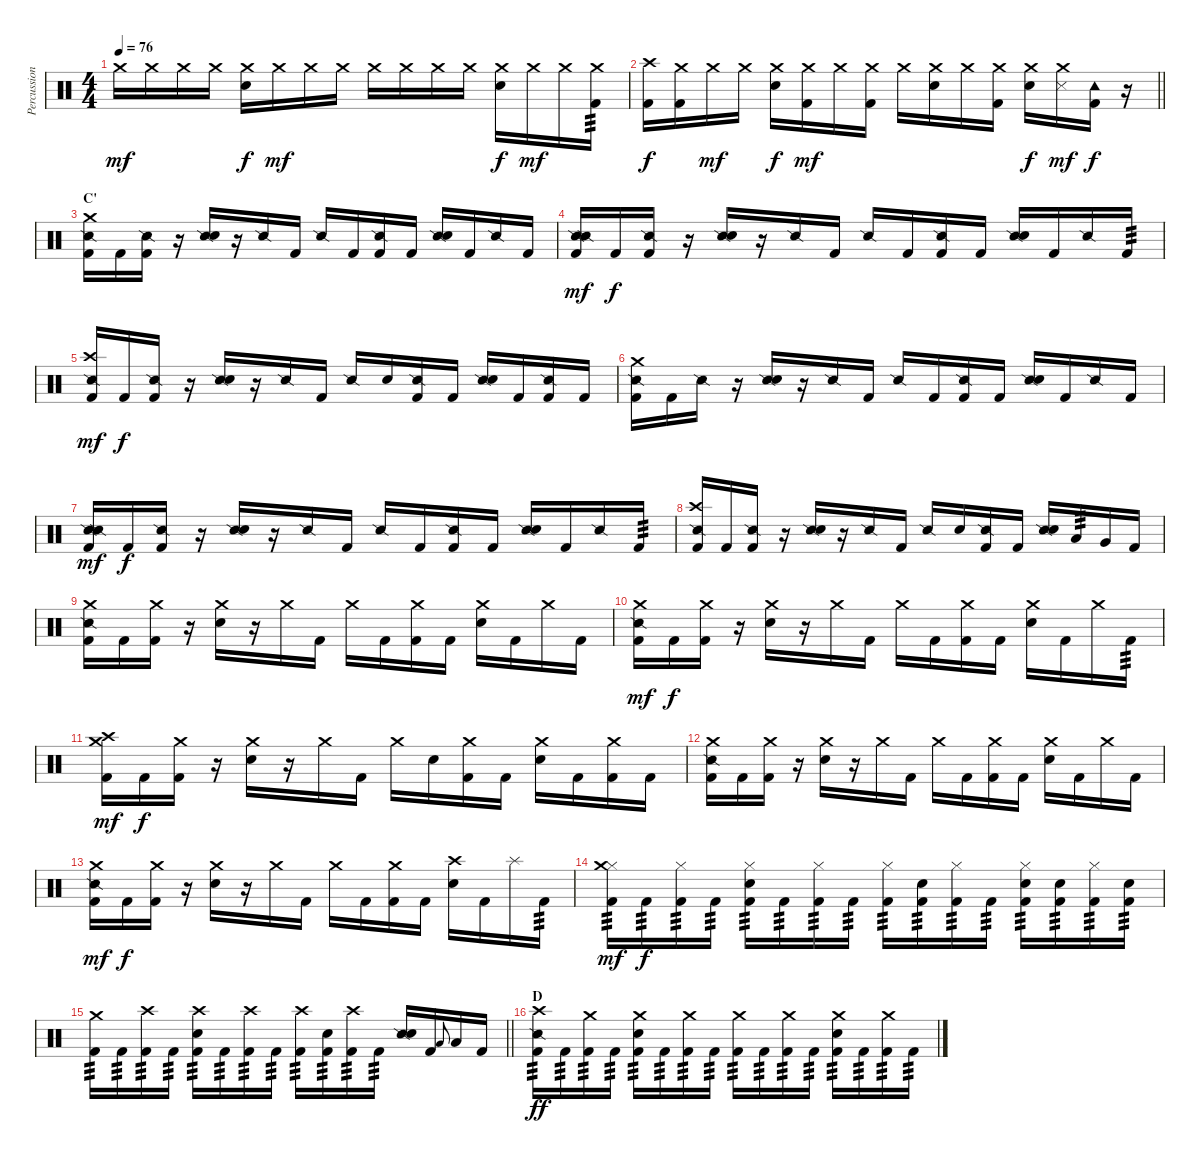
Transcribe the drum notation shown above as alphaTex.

\track ("Percussion" "Percussion") {instrument percussion}
\staff {score}
\articulation defaults
\ts (4 4)
\tempo 76
\clef neutral
\ks c "Crash medium (hit)".16{dy mf} "Crash medium (hit)".16 "Crash medium (hit)".16 "Crash medium (hit)".16
("Crash medium (hit)" "Snare (hit) 2").16{dy f} "Crash medium (hit)".16{dy mf} "Crash medium (hit)".16 "Crash medium (hit)".16 "Crash medium (hit)".16 "Crash medium (hit)".16 "Crash medium (hit)".16 "Crash medium (hit)".16 ("Crash medium (hit)" "Snare (hit) 2").16{dy f} "Crash medium (hit)".16{dy mf} "Crash medium (hit)".16 ("Crash medium (hit)" "Kick (hit) 2").16{tp 3} |
\barLineRight lightlight
("Crash high (hit)" "Kick (hit) 2").16{dy f} ("Crash medium (hit)" "Kick (hit) 2").16 "Crash medium (hit)".16{dy mf} "Crash medium (hit)".16 ("Crash medium (hit)" "Snare (hit) 2").16{dy f} ("Crash medium (hit)" "Kick (hit) 2").16{dy mf} "Crash medium (hit)".16 ("Crash medium (hit)" "Kick (hit) 2").16 "Crash medium (hit)".16 ("Crash medium (hit)" "Snare (hit) 2").16 "Crash medium (hit)".16 ("Crash medium (hit)" "Kick (hit) 2").16 ("Crash medium (hit)" "Snare (hit) 2").16{dy f} ("Crash medium (hit)" "Metronome (hit)").16{dy mf} ("Tambourine (hit)" "Kick (hit) 2").16{dy f} r.16 |
\section ("" "C'")
("Snare (side stick) 2" "Crash medium (hit)" "Kick (hit) 2").16 "Kick (hit) 2".16 ("Snare (side stick) 2" "Kick (hit) 2").16 r.16 ("Snare (side stick) 2" "Snare (hit) 2").16 r.16 "Snare (side stick) 2".16 "Kick (hit) 2".16 "Snare (side stick) 2".16 "Kick (hit) 2".16 ("Snare (side stick) 2" "Kick (hit) 2").16 "Kick (hit) 2".16 ("Snare (side stick) 2" "Snare (hit) 2").16 "Kick (hit) 2".16 "Snare (side stick) 2".16 "Kick (hit) 2".16 |
("Snare (side stick) 2" "Snare (side stick) 2" "Kick (hit) 2").16{dy mf} "Kick (hit) 2".16{dy f} ("Snare (side stick) 2" "Kick (hit) 2").16 r.16 ("Snare (side stick) 2" "Snare (hit) 2").16 r.16 "Snare (side stick) 2".16 "Kick (hit) 2".16 "Snare (side stick) 2".16 "Kick (hit) 2".16 ("Snare (side stick) 2" "Kick (hit) 2").16 "Kick (hit) 2".16 ("Snare (side stick) 2" "Snare (hit) 2").16 "Kick (hit) 2".16 "Snare (side stick) 2".16 "Kick (hit) 2".16{tp 3} |
("Snare (side stick) 2" "Crash high (hit)" "Kick (hit) 2").16{dy mf} "Kick (hit) 2".16{dy f} ("Snare (side stick) 2" "Kick (hit) 2").16 r.16 ("Snare (side stick) 2" "Snare (hit) 2").16 r.16 "Snare (side stick) 2".16 "Kick (hit) 2".16 "Snare (side stick) 2".16 "Snare (hit) 2".16 ("Snare (side stick) 2" "Kick (hit) 2").16 "Kick (hit) 2".16 ("Snare (side stick) 2" "Snare (hit) 2").16 "Kick (hit) 2".16 ("Snare (side stick) 2" "Kick (hit) 2").16 "Kick (hit) 2".16 |
("Snare (side stick) 2" "Crash medium (hit)" "Kick (hit) 2").16 "Kick (hit) 2".16 "Snare (side stick) 2".16 r.16 ("Snare (side stick) 2" "Snare (hit) 2").16 r.16 "Snare (side stick) 2".16 "Kick (hit) 2".16 "Snare (side stick) 2".16 "Kick (hit) 2".16 ("Snare (side stick) 2" "Kick (hit) 2").16 "Kick (hit) 2".16 ("Snare (side stick) 2" "Snare (hit) 2").16 "Kick (hit) 2".16 "Snare (side stick) 2".16 "Kick (hit) 2".16 |
("Snare (side stick) 2" "Snare (side stick) 2" "Kick (hit) 2").16{dy mf} "Kick (hit) 2".16{dy f} ("Snare (side stick) 2" "Kick (hit) 2").16 r.16 ("Snare (side stick) 2" "Snare (hit) 2").16 r.16 "Snare (side stick) 2".16 "Kick (hit) 2".16 "Snare (side stick) 2".16 "Kick (hit) 2".16 ("Snare (side stick) 2" "Kick (hit) 2").16 "Kick (hit) 2".16 ("Snare (side stick) 2" "Snare (hit) 2").16 "Kick (hit) 2".16 "Snare (side stick) 2".16 "Kick (hit) 2".16{tp 3} |
("Snare (side stick) 2" "Crash high (hit)" "Kick (hit) 2").16 "Kick (hit) 2".16 ("Snare (side stick) 2" "Kick (hit) 2").16 r.16 ("Snare (side stick) 2" "Snare (hit) 2").16 r.16 "Snare (side stick) 2".16 "Kick (hit) 2".16 "Snare (side stick) 2".16 "Snare (hit) 2".16 ("Snare (side stick) 2" "Kick (hit) 2").16 "Kick (hit) 2".16 ("Snare (side stick) 2" "Snare (hit) 2").16 "Low Tom (hit)".16{tp 3} "Very Low Tom (hit)".16 "Kick (hit) 2".16 |
("Snare (side stick) 2" "Crash medium (hit)" "Kick (hit) 2").16 "Kick (hit) 2".16 ("Crash medium (hit)" "Kick (hit) 2").16 r.16 ("Crash medium (hit)" "Snare (hit) 2").16 r.16 "Crash medium (hit)".16 "Kick (hit) 2".16 "Crash medium (hit)".16 "Kick (hit) 2".16 ("Crash medium (hit)" "Kick (hit) 2").16 "Kick (hit) 2".16 ("Crash medium (hit)" "Snare (hit) 2").16 "Kick (hit) 2".16 "Crash medium (hit)".16 "Kick (hit) 2".16 |
("Crash medium (hit)" "Snare (side stick) 2" "Kick (hit) 2").16{dy mf} "Kick (hit) 2".16{dy f} ("Crash medium (hit)" "Kick (hit) 2").16 r.16 ("Crash medium (hit)" "Snare (hit) 2").16 r.16 "Crash medium (hit)".16 "Kick (hit) 2".16 "Crash medium (hit)".16 "Kick (hit) 2".16 ("Crash medium (hit)" "Kick (hit) 2").16 "Kick (hit) 2".16 ("Crash medium (hit)" "Snare (hit) 2").16 "Kick (hit) 2".16 "Crash medium (hit)".16 "Kick (hit) 2".16{tp 3} |
("Crash medium (hit)" "Crash high (hit)" "Kick (hit) 2").16{dy mf} "Kick (hit) 2".16{dy f} ("Crash medium (hit)" "Kick (hit) 2").16 r.16 ("Crash medium (hit)" "Snare (hit) 2").16 r.16 "Crash medium (hit)".16 "Kick (hit) 2".16 "Crash medium (hit)".16 "Snare (hit) 2".16 ("Crash medium (hit)" "Kick (hit) 2").16 "Kick (hit) 2".16 ("Crash medium (hit)" "Snare (hit) 2").16 "Kick (hit) 2".16 ("Crash medium (hit)" "Kick (hit) 2").16 "Kick (hit) 2".16 |
("Snare (side stick) 2" "Crash medium (hit)" "Kick (hit) 2").16 "Kick (hit) 2".16 ("Crash medium (hit)" "Kick (hit) 2").16 r.16 ("Crash medium (hit)" "Snare (hit) 2").16 r.16 "Crash medium (hit)".16 "Kick (hit) 2".16 "Crash medium (hit)".16 "Kick (hit) 2".16 ("Crash medium (hit)" "Kick (hit) 2").16 "Kick (hit) 2".16 ("Crash medium (hit)" "Snare (hit) 2").16 "Kick (hit) 2".16 "Crash medium (hit)".16 "Kick (hit) 2".16 |
("Crash medium (hit)" "Snare (side stick) 2" "Kick (hit) 2").16{dy mf} "Kick (hit) 2".16{dy f} ("Crash medium (hit)" "Kick (hit) 2").16 r.16 ("Crash medium (hit)" "Snare (hit) 2").16 r.16 "Crash medium (hit)".16 "Kick (hit) 2".16 "Crash medium (hit)".16 "Kick (hit) 2".16 ("Crash medium (hit)" "Kick (hit) 2").16 "Kick (hit) 2".16 ("Crash high (hit)" "Snare (hit) 2").16 "Kick (hit) 2".16 "Splash (hit)".16 "Kick (hit) 2".16{tp 3} |
("Hi-Hat (closed)" "Crash medium (hit)" "Kick (hit) 2").16{tp 3 dy mf} "Kick (hit) 2".16{tp 3 dy f} ("Hi-Hat (closed)" "Kick (hit) 2").16{tp 3} "Kick (hit) 2".16{tp 3} ("Hi-Hat (closed)" "Snare (hit) 2" "Kick (hit) 2").16{tp 3} "Kick (hit) 2".16{tp 3} ("Hi-Hat (closed)" "Kick (hit) 2").16{tp 3} "Kick (hit) 2".16{tp 3} ("Hi-Hat (closed)" "Kick (hit) 2").16{tp 3} ("Snare (hit) 2" "Kick (hit) 2").16{tp 3} ("Hi-Hat (closed)" "Kick (hit) 2").16{tp 3} "Kick (hit) 2".16{tp 3} ("Hi-Hat (closed)" "Snare (hit) 2" "Kick (hit) 2").16{tp 3} ("Snare (hit) 2" "Kick (hit) 2").16{tp 3} ("Hi-Hat (closed)" "Kick (hit) 2").16{tp 3} ("Snare (hit) 2" "Kick (hit) 2").16{tp 3} |
\barLineRight lightlight
("Crash medium (hit)" "Kick (hit) 2").16{tp 3} "Kick (hit) 2".16{tp 3} ("Crash high (hit)" "Kick (hit) 2").16{tp 3} "Kick (hit) 2".16{tp 3} ("Crash high (hit)" "Snare (hit) 2" "Kick (hit) 2").16{tp 3} "Kick (hit) 2".16{tp 3} ("Crash high (hit)" "Kick (hit) 2").16{tp 3} "Kick (hit) 2".16{tp 3} ("Crash high (hit)" "Kick (hit) 2").16{tp 3} ("Snare (hit) 2" "Kick (hit) 2").16{tp 3} ("Crash high (hit)" "Kick (hit) 2").16{tp 3} "Kick (hit) 2".16{tp 3} ("Snare (side stick) 2" "Snare (hit) 2").16 "Kick (hit) 2".16 "Low Floor Tom (hit)".8{gr onbeat} "Low Floor Tom (hit)".16 "Kick (hit) 2".16 |
\section ("" "D")
("Crash high (hit)" "Snare (side stick) 2" "Kick (hit) 2").16{tp 3 dy ff} "Kick (hit) 2".16{tp 3} ("Crash medium (hit)" "Kick (hit) 2").16{tp 3} "Kick (hit) 2".16{tp 3} ("Crash medium (hit)" "Snare (hit) 2" "Kick (hit) 2").16{tp 3} "Kick (hit) 2".16{tp 3} ("Crash medium (hit)" "Kick (hit) 2").16{tp 3} "Kick (hit) 2".16{tp 3} ("Crash medium (hit)" "Kick (hit) 2").16{tp 3} "Kick (hit) 2".16{tp 3} ("Crash medium (hit)" "Kick (hit) 2").16{tp 3} "Kick (hit) 2".16{tp 3} ("Crash medium (hit)" "Snare (hit) 2" "Kick (hit) 2").16{tp 3} "Kick (hit) 2".16{tp 3} ("Crash medium (hit)" "Kick (hit) 2").16{tp 3} "Kick (hit) 2".16{tp 3}
